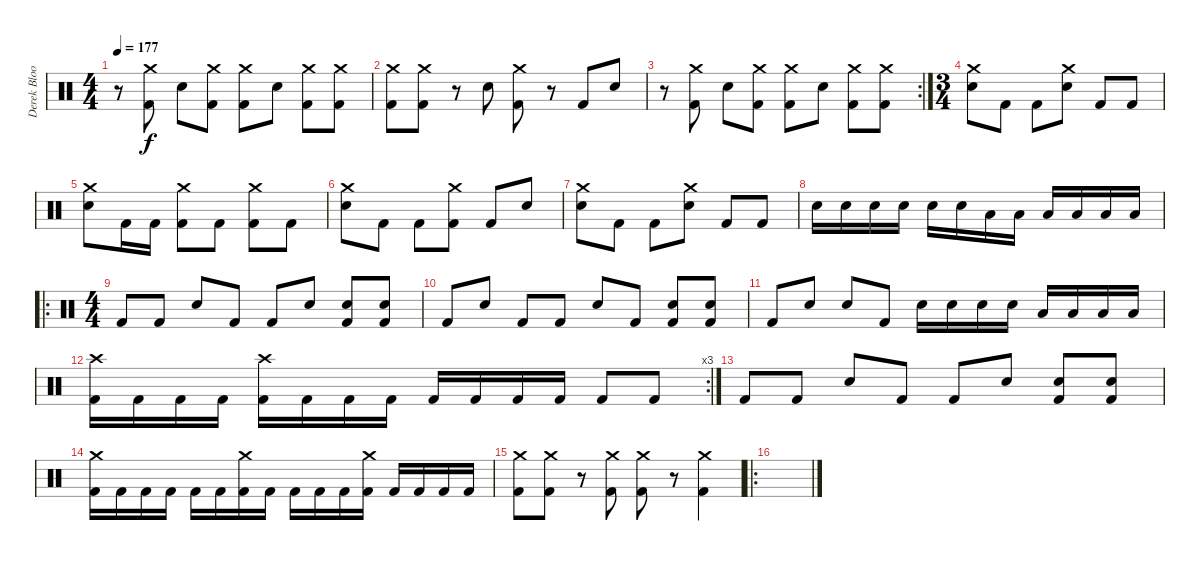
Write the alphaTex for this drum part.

\track ("Derek Bloom" "Derek Bloo") {instrument percussion}
\staff {score}
\articulation defaults
\ts (4 4)
\tempo 177
\clef neutral
\ks c
r.8{dy f} ("Crash medium (hit)" "Kick (hit) 2").8 "Electric Snare (hit)".8 ("Crash medium (hit)" "Kick (hit) 2").8 ("Crash medium (hit)" "Kick (hit) 2").8 "Electric Snare (hit)".8 ("Crash medium (hit)" "Kick (hit) 2").8 ("Crash medium (hit)" "Kick (hit) 2").8 |
("Crash medium (hit)" "Kick (hit) 2").8 ("Crash medium (hit)" "Kick (hit) 2").8 r.8 "Electric Snare (hit)".8 ("Crash medium (hit)" "Kick (hit) 2").8 r.8 "Kick (hit) 2".8 "Electric Snare (hit)".8 |
\rc 2
r.8 ("Crash medium (hit)" "Kick (hit) 2").8 "Electric Snare (hit)".8 ("Crash medium (hit)" "Kick (hit) 2").8 ("Crash medium (hit)" "Kick (hit) 2").8 "Electric Snare (hit)".8 ("Crash medium (hit)" "Kick (hit) 2").8 ("Crash medium (hit)" "Kick (hit) 2").8 |
\ts (3 4)
("Crash medium (hit)" "Electric Snare (hit)").8 "Kick (hit) 2".8 "Kick (hit) 2".8 ("Crash medium (hit)" "Electric Snare (hit)").8 "Kick (hit) 2".8 "Kick (hit) 2".8 |
("Crash medium (hit)" "Electric Snare (hit)").8 "Kick (hit) 2".16 "Kick (hit) 2".16 ("Crash medium (hit)" "Kick (hit) 2").8 "Kick (hit) 2".8 ("Crash medium (hit)" "Kick (hit) 2").8 "Kick (hit) 2".8 |
("Crash medium (hit)" "Electric Snare (hit)").8 "Kick (hit) 2".8 "Kick (hit) 2".8 ("Crash medium (hit)" "Kick (hit) 2").8 "Kick (hit) 2".8 "Electric Snare (hit)".8 |
("Crash medium (hit)" "Electric Snare (hit)").8 "Kick (hit) 2".8 "Kick (hit) 2".8 ("Crash medium (hit)" "Electric Snare (hit)").8 "Kick (hit) 2".8 "Kick (hit) 2".8 |
"Electric Snare (hit)".16 "Electric Snare (hit)".16 "Electric Snare (hit)".16 "Electric Snare (hit)".16 "Electric Snare (hit)".16 "Electric Snare (hit)".16 "Low Tom (hit)".16 "Low Tom (hit)".16 "Low Tom (hit)".16 "Low Tom (hit)".16 "Low Tom (hit)".16 "Low Tom (hit)".16 |
\ro
\ts (4 4)
"Kick (hit) 2".8 "Kick (hit) 2".8 "Electric Snare (hit)".8 "Kick (hit) 2".8 "Kick (hit) 2".8 "Electric Snare (hit)".8 ("Electric Snare (hit)" "Kick (hit) 2").8 ("Electric Snare (hit)" "Kick (hit) 2").8 |
"Kick (hit) 2".8 "Electric Snare (hit)".8 "Kick (hit) 2".8 "Kick (hit) 2".8 "Electric Snare (hit)".8 "Kick (hit) 2".8 ("Electric Snare (hit)" "Kick (hit) 2").8 ("Electric Snare (hit)" "Kick (hit) 2").8 |
"Kick (hit) 2".8 "Electric Snare (hit)".8 "Electric Snare (hit)".8 "Kick (hit) 2".8 "Electric Snare (hit)".16 "Electric Snare (hit)".16 "Electric Snare (hit)".16 "Electric Snare (hit)".16 "Low Tom (hit)".16 "Low Tom (hit)".16 "Low Tom (hit)".16 "Low Tom (hit)".16 |
\rc 3
("Crash high (hit)" "Kick (hit) 2").16 "Kick (hit) 2".16 "Kick (hit) 2".16 "Kick (hit) 2".16 ("Crash high (hit)" "Kick (hit) 2").16 "Kick (hit) 2".16 "Kick (hit) 2".16 "Kick (hit) 2".16 "Kick (hit) 2".16 "Kick (hit) 2".16 "Kick (hit) 2".16 "Kick (hit) 2".16 "Kick (hit) 2".8 "Kick (hit) 2".8 |
"Kick (hit) 2".8 "Kick (hit) 2".8 "Electric Snare (hit)".8 "Kick (hit) 2".8 "Kick (hit) 2".8 "Electric Snare (hit)".8 ("Electric Snare (hit)" "Kick (hit) 2").8 ("Electric Snare (hit)" "Kick (hit) 2").8 |
("Crash medium (hit)" "Kick (hit) 2").16 "Kick (hit) 2".16 "Kick (hit) 2".16 "Kick (hit) 2".16 "Kick (hit) 2".16 "Kick (hit) 2".16 ("Crash medium (hit)" "Kick (hit) 2").16 "Kick (hit) 2".16 "Kick (hit) 2".16 "Kick (hit) 2".16 "Kick (hit) 2".16 ("Crash medium (hit)" "Kick (hit) 2").16 "Kick (hit) 2".16 "Kick (hit) 2".16 "Kick (hit) 2".16 "Kick (hit) 2".16 |
("Crash medium (hit)" "Kick (hit) 2").8 ("Crash medium (hit)" "Kick (hit) 2").8 r.8 ("Crash medium (hit)" "Kick (hit) 2").8 ("Crash medium (hit)" "Kick (hit) 2").8 r.8 ("Crash medium (hit)" "Kick (hit) 2").4 |
\ro
